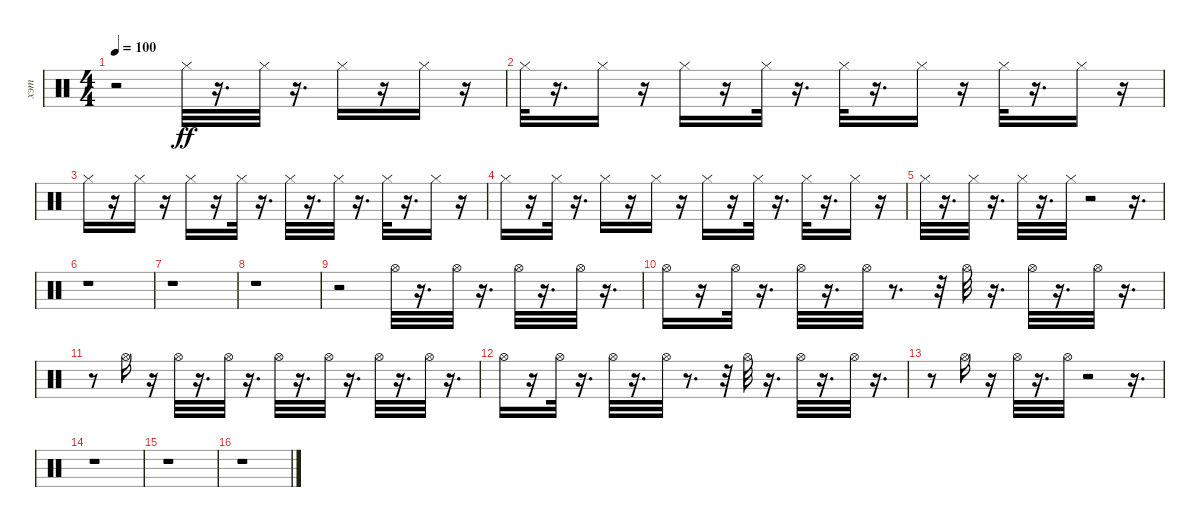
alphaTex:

\track ("хэт" "хэт") {instrument percussion}
\staff {score}
\articulation defaults
\ts (4 4)
\tempo 100
\clef neutral
\ks c
r.2{dy ff} "Hi-Hat (closed)".32 r.16{d} "Hi-Hat (closed)".32 r.16{d} "Hi-Hat (closed)".16 r.16 "Hi-Hat (closed)".16 r.16 |
"Hi-Hat (closed)".32 r.16{d} "Hi-Hat (closed)".16 r.16 "Hi-Hat (closed)".16 r.16 "Hi-Hat (closed)".32 r.16{d} "Hi-Hat (closed)".32 r.16{d} "Hi-Hat (closed)".16 r.16 "Hi-Hat (closed)".32 r.16{d} "Hi-Hat (closed)".16 r.16 |
"Hi-Hat (closed)".16 r.16 "Hi-Hat (closed)".16 r.16 "Hi-Hat (closed)".16 r.16 "Hi-Hat (closed)".32 r.16{d} "Hi-Hat (closed)".32 r.16{d} "Hi-Hat (closed)".32 r.16{d} "Hi-Hat (closed)".32 r.16{d} "Hi-Hat (closed)".16 r.16 |
"Hi-Hat (closed)".16 r.16 "Hi-Hat (closed)".32 r.16{d} "Hi-Hat (closed)".16 r.16 "Hi-Hat (closed)".16 r.16 "Hi-Hat (closed)".16 r.16 "Hi-Hat (closed)".32 r.16{d} "Hi-Hat (closed)".32 r.16{d} "Hi-Hat (closed)".16 r.16 |
"Hi-Hat (closed)".32 r.16{d} "Hi-Hat (closed)".32 r.16{d} "Hi-Hat (closed)".32 r.16{d} "Hi-Hat (closed)".32 r.2 r.16{d} |
r.1 |
r.1 |
r.1 |
r.2 "Hi-Hat (open)".32 r.16{d} "Hi-Hat (open)".32 r.16{d} "Hi-Hat (open)".32 r.16{d} "Hi-Hat (open)".32 r.16{d} |
"Hi-Hat (open)".16 r.16 "Hi-Hat (open)".32 r.16{d} "Hi-Hat (open)".32 r.16{d} "Hi-Hat (open)".32 r.8{d} r.32 "Hi-Hat (open)".32 r.16{d} "Hi-Hat (open)".32 r.16{d} "Hi-Hat (open)".32 r.16{d} |
r.8 "Hi-Hat (open)".16 r.16 "Hi-Hat (open)".32 r.16{d} "Hi-Hat (open)".32 r.16{d} "Hi-Hat (open)".32 r.16{d} "Hi-Hat (open)".32 r.16{d} "Hi-Hat (open)".32 r.16{d} "Hi-Hat (open)".32 r.16{d} |
"Hi-Hat (open)".16 r.16 "Hi-Hat (open)".32 r.16{d} "Hi-Hat (open)".32 r.16{d} "Hi-Hat (open)".32 r.8{d} r.32 "Hi-Hat (open)".32 r.16{d} "Hi-Hat (open)".32 r.16{d} "Hi-Hat (open)".32 r.16{d} |
r.8 "Hi-Hat (open)".16 r.16 "Hi-Hat (open)".32 r.16{d} "Hi-Hat (open)".32 r.2 r.16{d} |
r.1 |
r.1 |
r.1
